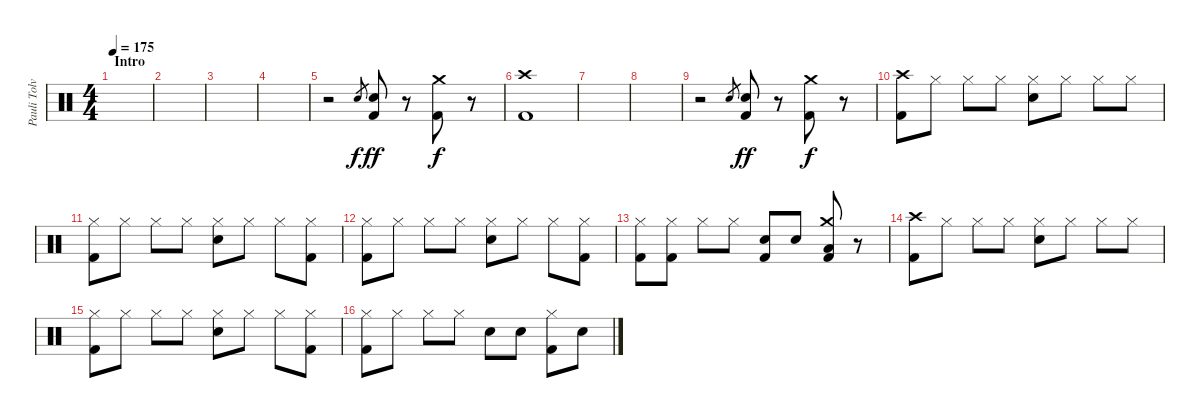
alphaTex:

\track ("Pauli Tolvanen-Drums" "Pauli Tolv") {instrument percussion}
\staff {score}
\articulation defaults
\ts (4 4)
\section ("" "Intro")
\tempo 175
\tempo 155
\tempo 175
\clef neutral
\ks c
|
|
|
|
r.2 "Snare (hit) 2".8{gr} ("Snare (hit) 2" "Kick (hit) 2").8{dy ff} r.8 ("Crash medium (hit)" "Kick (hit) 2").8{dy f} r.8 |
("Crash high (hit)" "Kick (hit) 2").1 |
|
|
r.2 "Snare (hit) 2".8{gr} ("Snare (hit) 2" "Kick (hit) 2").8{dy ff} r.8 ("Crash medium (hit)" "Kick (hit) 2").8{dy f} r.8 |
("Crash high (hit)" "Kick (hit) 2").8 "Hi-Hat (closed)".8 "Hi-Hat (closed)".8 "Hi-Hat (closed)".8 ("Hi-Hat (closed)" "Snare (hit) 2").8 "Hi-Hat (closed)".8 "Hi-Hat (closed)".8 "Hi-Hat (closed)".8 |
("Hi-Hat (closed)" "Kick (hit) 2").8 "Hi-Hat (closed)".8 "Hi-Hat (closed)".8 "Hi-Hat (closed)".8 ("Hi-Hat (closed)" "Snare (hit) 2").8 "Hi-Hat (closed)".8 "Hi-Hat (closed)".8 ("Hi-Hat (closed)" "Kick (hit) 2").8 |
("Hi-Hat (closed)" "Kick (hit) 2").8 "Hi-Hat (closed)".8 "Hi-Hat (closed)".8 "Hi-Hat (closed)".8 ("Hi-Hat (closed)" "Snare (hit) 2").8 "Hi-Hat (closed)".8 "Hi-Hat (closed)".8 ("Hi-Hat (closed)" "Kick (hit) 2").8 |
("Hi-Hat (closed)" "Kick (hit) 2").8 ("Hi-Hat (closed)" "Kick (hit) 2").8 "Hi-Hat (closed)".8 "Hi-Hat (closed)".8 ("Snare (hit) 2" "Kick (hit) 2").8 "Snare (hit) 2".8 ("Crash medium (hit)" "Low Floor Tom (hit)" "Kick (hit) 2").8 r.8 |
("Crash high (hit)" "Kick (hit) 2").8 "Hi-Hat (closed)".8 "Hi-Hat (closed)".8 "Hi-Hat (closed)".8 ("Hi-Hat (closed)" "Snare (hit) 2").8 "Hi-Hat (closed)".8 "Hi-Hat (closed)".8 "Hi-Hat (closed)".8 |
("Hi-Hat (closed)" "Kick (hit) 2").8 "Hi-Hat (closed)".8 "Hi-Hat (closed)".8 "Hi-Hat (closed)".8 ("Hi-Hat (closed)" "Snare (hit) 2").8 "Hi-Hat (closed)".8 "Hi-Hat (closed)".8 ("Hi-Hat (closed)" "Kick (hit) 2").8 |
("Hi-Hat (closed)" "Kick (hit) 2").8 "Hi-Hat (closed)".8 "Hi-Hat (closed)".8 "Hi-Hat (closed)".8 "Snare (hit) 2".8 "Snare (hit) 2".8 ("Hi-Hat (closed)" "Kick (hit) 2").8 "Snare (hit) 2".8
